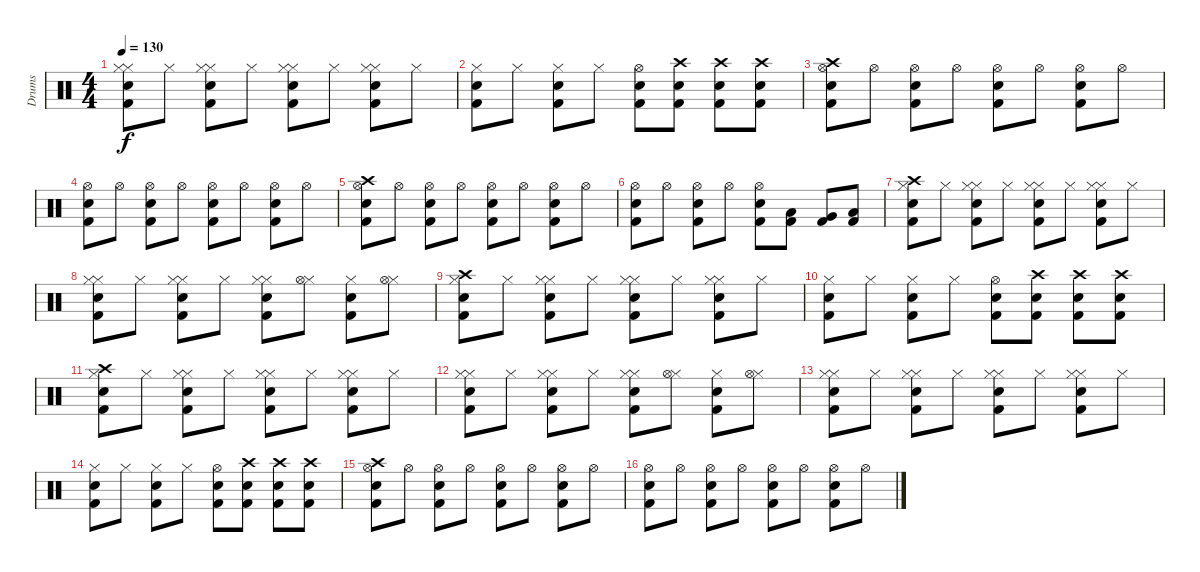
\track ("Drums" "Drums") {instrument percussion}
\staff {score}
\articulation defaults
\ts (4 4)
\tempo 130
\clef neutral
\ks c
("Hi-Hat (closed)" "Hi-Hat (closed)" "Electric Snare (hit)" "Kick (hit) 2").8{dy f} "Hi-Hat (closed)".8 ("Hi-Hat (closed)" "Hi-Hat (closed)" "Electric Snare (hit)" "Kick (hit) 2").8 "Hi-Hat (closed)".8 ("Hi-Hat (closed)" "Hi-Hat (closed)" "Electric Snare (hit)" "Kick (hit) 2").8 "Hi-Hat (closed)".8 ("Hi-Hat (closed)" "Hi-Hat (closed)" "Electric Snare (hit)" "Kick (hit) 2").8 "Hi-Hat (closed)".8 |
("Hi-Hat (closed)" "Electric Snare (hit)" "Kick (hit) 2").8 "Hi-Hat (closed)".8 ("Hi-Hat (closed)" "Electric Snare (hit)" "Kick (hit) 2").8 "Hi-Hat (closed)".8 ("Hi-Hat (open)" "Electric Snare (hit)" "Kick (hit) 2").8 ("Crash high (hit)" "Electric Snare (hit)" "Kick (hit) 2").8 ("Crash high (hit)" "Electric Snare (hit)" "Kick (hit) 2").8 ("Crash high (hit)" "Electric Snare (hit)" "Kick (hit) 2").8 |
("Hi-Hat (open)" "Crash high (hit)" "Electric Snare (hit)" "Kick (hit) 2").8 "Hi-Hat (open)".8 ("Hi-Hat (open)" "Electric Snare (hit)" "Kick (hit) 2").8 "Hi-Hat (open)".8 ("Hi-Hat (open)" "Electric Snare (hit)" "Kick (hit) 2").8 "Hi-Hat (open)".8 ("Hi-Hat (open)" "Electric Snare (hit)" "Kick (hit) 2").8 "Hi-Hat (open)".8 |
("Hi-Hat (open)" "Electric Snare (hit)" "Kick (hit) 2").8 "Hi-Hat (open)".8 ("Hi-Hat (open)" "Electric Snare (hit)" "Kick (hit) 2").8 "Hi-Hat (open)".8 ("Hi-Hat (open)" "Electric Snare (hit)" "Kick (hit) 2").8 "Hi-Hat (open)".8 ("Hi-Hat (open)" "Electric Snare (hit)" "Kick (hit) 2").8 "Hi-Hat (open)".8 |
("Hi-Hat (open)" "Crash high (hit)" "Electric Snare (hit)" "Kick (hit) 2").8 "Hi-Hat (open)".8 ("Hi-Hat (open)" "Electric Snare (hit)" "Kick (hit) 2").8 "Hi-Hat (open)".8 ("Hi-Hat (open)" "Electric Snare (hit)" "Kick (hit) 2").8 "Hi-Hat (open)".8 ("Hi-Hat (open)" "Electric Snare (hit)" "Kick (hit) 2").8 "Hi-Hat (open)".8 |
("Hi-Hat (open)" "Electric Snare (hit)" "Kick (hit) 2").8 "Hi-Hat (open)".8 ("Hi-Hat (open)" "Electric Snare (hit)" "Kick (hit) 2").8 "Hi-Hat (open)".8 ("Hi-Hat (open)" "Electric Snare (hit)" "Kick (hit) 2").8 ("Low Tom (hit)" "Kick (hit) 2").8 ("Very Low Tom (hit)" "Kick (hit) 2").8 ("Low Floor Tom (hit)" "Kick (hit) 2").8 |
("Hi-Hat (closed)" "Crash high (hit)" "Electric Snare (hit)" "Kick (hit) 2").8 "Hi-Hat (closed)".8 ("Hi-Hat (closed)" "Hi-Hat (closed)" "Electric Snare (hit)" "Kick (hit) 2").8 "Hi-Hat (closed)".8 ("Hi-Hat (closed)" "Hi-Hat (closed)" "Electric Snare (hit)" "Kick (hit) 2").8 "Hi-Hat (closed)".8 ("Hi-Hat (closed)" "Hi-Hat (closed)" "Electric Snare (hit)" "Kick (hit) 2").8 "Hi-Hat (closed)".8 |
("Hi-Hat (closed)" "Hi-Hat (closed)" "Electric Snare (hit)" "Kick (hit) 2").8 "Hi-Hat (closed)".8 ("Hi-Hat (closed)" "Hi-Hat (closed)" "Electric Snare (hit)" "Kick (hit) 2").8 "Hi-Hat (closed)".8 ("Hi-Hat (closed)" "Hi-Hat (closed)" "Electric Snare (hit)" "Kick (hit) 2").8 ("Hi-Hat (closed)" "Hi-Hat (open)").8 ("Hi-Hat (closed)" "Electric Snare (hit)" "Kick (hit) 2").8 ("Hi-Hat (closed)" "Hi-Hat (open)").8 |
("Hi-Hat (closed)" "Crash high (hit)" "Electric Snare (hit)" "Kick (hit) 2").8 "Hi-Hat (closed)".8 ("Hi-Hat (closed)" "Hi-Hat (closed)" "Electric Snare (hit)" "Kick (hit) 2").8 "Hi-Hat (closed)".8 ("Hi-Hat (closed)" "Hi-Hat (closed)" "Electric Snare (hit)" "Kick (hit) 2").8 "Hi-Hat (closed)".8 ("Hi-Hat (closed)" "Hi-Hat (closed)" "Electric Snare (hit)" "Kick (hit) 2").8 "Hi-Hat (closed)".8 |
("Hi-Hat (closed)" "Electric Snare (hit)" "Kick (hit) 2").8 "Hi-Hat (closed)".8 ("Hi-Hat (closed)" "Electric Snare (hit)" "Kick (hit) 2").8 "Hi-Hat (closed)".8 ("Hi-Hat (open)" "Electric Snare (hit)" "Kick (hit) 2").8 ("Crash high (hit)" "Electric Snare (hit)" "Kick (hit) 2").8 ("Crash high (hit)" "Electric Snare (hit)" "Kick (hit) 2").8 ("Crash high (hit)" "Electric Snare (hit)" "Kick (hit) 2").8 |
("Hi-Hat (closed)" "Crash high (hit)" "Electric Snare (hit)" "Kick (hit) 2").8 "Hi-Hat (closed)".8 ("Hi-Hat (closed)" "Hi-Hat (closed)" "Electric Snare (hit)" "Kick (hit) 2").8 "Hi-Hat (closed)".8 ("Hi-Hat (closed)" "Hi-Hat (closed)" "Electric Snare (hit)" "Kick (hit) 2").8 "Hi-Hat (closed)".8 ("Hi-Hat (closed)" "Hi-Hat (closed)" "Electric Snare (hit)" "Kick (hit) 2").8 "Hi-Hat (closed)".8 |
("Hi-Hat (closed)" "Hi-Hat (closed)" "Electric Snare (hit)" "Kick (hit) 2").8 "Hi-Hat (closed)".8 ("Hi-Hat (closed)" "Hi-Hat (closed)" "Electric Snare (hit)" "Kick (hit) 2").8 "Hi-Hat (closed)".8 ("Hi-Hat (closed)" "Hi-Hat (closed)" "Electric Snare (hit)" "Kick (hit) 2").8 ("Hi-Hat (closed)" "Hi-Hat (open)").8 ("Hi-Hat (closed)" "Electric Snare (hit)" "Kick (hit) 2").8 ("Hi-Hat (closed)" "Hi-Hat (open)").8 |
("Hi-Hat (closed)" "Hi-Hat (closed)" "Electric Snare (hit)" "Kick (hit) 2").8 "Hi-Hat (closed)".8 ("Hi-Hat (closed)" "Hi-Hat (closed)" "Electric Snare (hit)" "Kick (hit) 2").8 "Hi-Hat (closed)".8 ("Hi-Hat (closed)" "Hi-Hat (closed)" "Electric Snare (hit)" "Kick (hit) 2").8 "Hi-Hat (closed)".8 ("Hi-Hat (closed)" "Hi-Hat (closed)" "Electric Snare (hit)" "Kick (hit) 2").8 "Hi-Hat (closed)".8 |
("Hi-Hat (closed)" "Electric Snare (hit)" "Kick (hit) 2").8 "Hi-Hat (closed)".8 ("Hi-Hat (closed)" "Electric Snare (hit)" "Kick (hit) 2").8 "Hi-Hat (closed)".8 ("Hi-Hat (open)" "Electric Snare (hit)" "Kick (hit) 2").8 ("Crash high (hit)" "Electric Snare (hit)" "Kick (hit) 2").8 ("Crash high (hit)" "Electric Snare (hit)" "Kick (hit) 2").8 ("Crash high (hit)" "Electric Snare (hit)" "Kick (hit) 2").8 |
("Hi-Hat (open)" "Crash high (hit)" "Electric Snare (hit)" "Kick (hit) 2").8 "Hi-Hat (open)".8 ("Hi-Hat (open)" "Electric Snare (hit)" "Kick (hit) 2").8 "Hi-Hat (open)".8 ("Hi-Hat (open)" "Electric Snare (hit)" "Kick (hit) 2").8 "Hi-Hat (open)".8 ("Hi-Hat (open)" "Electric Snare (hit)" "Kick (hit) 2").8 "Hi-Hat (open)".8 |
("Hi-Hat (open)" "Electric Snare (hit)" "Kick (hit) 2").8 "Hi-Hat (open)".8 ("Hi-Hat (open)" "Electric Snare (hit)" "Kick (hit) 2").8 "Hi-Hat (open)".8 ("Hi-Hat (open)" "Electric Snare (hit)" "Kick (hit) 2").8 "Hi-Hat (open)".8 ("Hi-Hat (open)" "Electric Snare (hit)" "Kick (hit) 2").8 "Hi-Hat (open)".8
